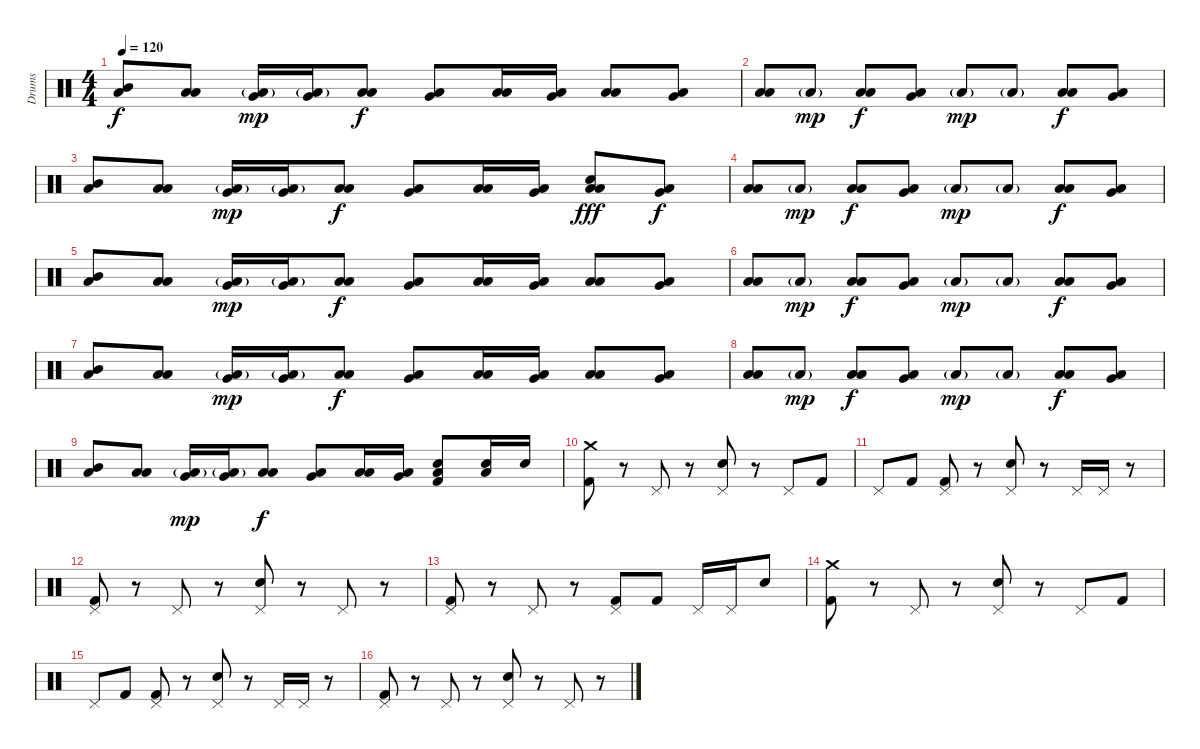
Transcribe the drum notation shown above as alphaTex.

\track ("Drums" "Drums") {instrument percussion}
\staff {score}
\articulation defaults
\ts (4 4)
\tempo 120
\clef neutral
\ks c
("Mid Tom (hit)" "Low Floor Tom (hit)").8{dy f} ("Low Tom (hit)" "Low Floor Tom (hit)").8 ("Very Low Tom (hit)" "Low Floor Tom (hit)"{g}).16{dy mp} ("Very Low Tom (hit)" "Low Floor Tom (hit)"{g}).16 ("Low Tom (hit)" "Low Floor Tom (hit)").8{dy f} ("Very Low Tom (hit)" "Low Floor Tom (hit)").8 ("Low Tom (hit)" "Low Floor Tom (hit)").16 ("Very Low Tom (hit)" "Low Floor Tom (hit)").16 ("Low Tom (hit)" "Low Floor Tom (hit)").8 ("Very Low Tom (hit)" "Low Floor Tom (hit)").8 |
("Low Tom (hit)" "Low Floor Tom (hit)").8 "Low Floor Tom (hit)"{g}.8{dy mp} ("Low Tom (hit)" "Low Floor Tom (hit)").8{dy f} ("Very Low Tom (hit)" "Low Floor Tom (hit)").8 "Low Floor Tom (hit)"{g}.8{dy mp} "Low Floor Tom (hit)"{g}.8 ("Low Tom (hit)" "Low Floor Tom (hit)").8{dy f} ("Very Low Tom (hit)" "Low Floor Tom (hit)").8 |
("Mid Tom (hit)" "Low Floor Tom (hit)").8 ("Low Tom (hit)" "Low Floor Tom (hit)").8 ("Very Low Tom (hit)" "Low Floor Tom (hit)"{g}).16{dy mp} ("Very Low Tom (hit)" "Low Floor Tom (hit)"{g}).16 ("Low Tom (hit)" "Low Floor Tom (hit)").8{dy f} ("Very Low Tom (hit)" "Low Floor Tom (hit)").8 ("Low Tom (hit)" "Low Floor Tom (hit)").16 ("Very Low Tom (hit)" "Low Floor Tom (hit)").16 ("Electric Snare (hit)" "Low Tom (hit)" "Low Floor Tom (hit)").8{dy fff} ("Very Low Tom (hit)" "Low Floor Tom (hit)").8{dy f} |
("Low Tom (hit)" "Low Floor Tom (hit)").8 "Low Floor Tom (hit)"{g}.8{dy mp} ("Low Tom (hit)" "Low Floor Tom (hit)").8{dy f} ("Very Low Tom (hit)" "Low Floor Tom (hit)").8 "Low Floor Tom (hit)"{g}.8{dy mp} "Low Floor Tom (hit)"{g}.8 ("Low Tom (hit)" "Low Floor Tom (hit)").8{dy f} ("Very Low Tom (hit)" "Low Floor Tom (hit)").8 |
("Mid Tom (hit)" "Low Floor Tom (hit)").8 ("Low Tom (hit)" "Low Floor Tom (hit)").8 ("Very Low Tom (hit)" "Low Floor Tom (hit)"{g}).16{dy mp} ("Very Low Tom (hit)" "Low Floor Tom (hit)"{g}).16 ("Low Tom (hit)" "Low Floor Tom (hit)").8{dy f} ("Very Low Tom (hit)" "Low Floor Tom (hit)").8 ("Low Tom (hit)" "Low Floor Tom (hit)").16 ("Very Low Tom (hit)" "Low Floor Tom (hit)").16 ("Low Tom (hit)" "Low Floor Tom (hit)").8 ("Very Low Tom (hit)" "Low Floor Tom (hit)").8 |
("Low Tom (hit)" "Low Floor Tom (hit)").8 "Low Floor Tom (hit)"{g}.8{dy mp} ("Low Tom (hit)" "Low Floor Tom (hit)").8{dy f} ("Very Low Tom (hit)" "Low Floor Tom (hit)").8 "Low Floor Tom (hit)"{g}.8{dy mp} "Low Floor Tom (hit)"{g}.8 ("Low Tom (hit)" "Low Floor Tom (hit)").8{dy f} ("Very Low Tom (hit)" "Low Floor Tom (hit)").8 |
("Mid Tom (hit)" "Low Floor Tom (hit)").8 ("Low Tom (hit)" "Low Floor Tom (hit)").8 ("Very Low Tom (hit)" "Low Floor Tom (hit)"{g}).16{dy mp} ("Very Low Tom (hit)" "Low Floor Tom (hit)"{g}).16 ("Low Tom (hit)" "Low Floor Tom (hit)").8{dy f} ("Very Low Tom (hit)" "Low Floor Tom (hit)").8 ("Low Tom (hit)" "Low Floor Tom (hit)").16 ("Very Low Tom (hit)" "Low Floor Tom (hit)").16 ("Low Tom (hit)" "Low Floor Tom (hit)").8 ("Very Low Tom (hit)" "Low Floor Tom (hit)").8 |
("Low Tom (hit)" "Low Floor Tom (hit)").8 "Low Floor Tom (hit)"{g}.8{dy mp} ("Low Tom (hit)" "Low Floor Tom (hit)").8{dy f} ("Very Low Tom (hit)" "Low Floor Tom (hit)").8 "Low Floor Tom (hit)"{g}.8{dy mp} "Low Floor Tom (hit)"{g}.8 ("Low Tom (hit)" "Low Floor Tom (hit)").8{dy f} ("Very Low Tom (hit)" "Low Floor Tom (hit)").8 |
("Mid Tom (hit)" "Low Floor Tom (hit)").8 ("Low Tom (hit)" "Low Floor Tom (hit)").8 ("Very Low Tom (hit)" "Low Floor Tom (hit)"{g}).16{dy mp} ("Very Low Tom (hit)" "Low Floor Tom (hit)"{g}).16 ("Low Tom (hit)" "Low Floor Tom (hit)").8{dy f} ("Very Low Tom (hit)" "Low Floor Tom (hit)").8 ("Low Tom (hit)" "Low Floor Tom (hit)").16 ("Very Low Tom (hit)" "Low Floor Tom (hit)").16 ("Electric Snare (hit)" "Low Floor Tom (hit)" "Kick (hit) 2").8 ("Electric Snare (hit)" "Low Floor Tom (hit)").16 "Electric Snare (hit)".16 |
\section ("" "")
("Crash medium (hit)" "Kick (hit) 2").8 r.8 "Pedal Hi-Hat (hit)".8 r.8 ("Pedal Hi-Hat (hit)" "Electric Snare (hit)").8 r.8 "Pedal Hi-Hat (hit)".8 "Kick (hit) 2".8 |
"Pedal Hi-Hat (hit)".8 "Kick (hit) 2".8 ("Pedal Hi-Hat (hit)" "Kick (hit) 2").8 r.8 ("Pedal Hi-Hat (hit)" "Electric Snare (hit)").8 r.8 "Pedal Hi-Hat (hit)".16 "Pedal Hi-Hat (hit)".16 r.8 |
("Pedal Hi-Hat (hit)" "Kick (hit) 2").8 r.8 "Pedal Hi-Hat (hit)".8 r.8 ("Pedal Hi-Hat (hit)" "Electric Snare (hit)").8 r.8 "Pedal Hi-Hat (hit)".8 r.8 |
("Pedal Hi-Hat (hit)" "Kick (hit) 2").8 r.8 "Pedal Hi-Hat (hit)".8 r.8 ("Pedal Hi-Hat (hit)" "Kick (hit) 2").8 "Kick (hit) 2".8 "Pedal Hi-Hat (hit)".16 "Pedal Hi-Hat (hit)".16 "Electric Snare (hit)".8 |
("Crash medium (hit)" "Kick (hit) 2").8 r.8 "Pedal Hi-Hat (hit)".8 r.8 ("Pedal Hi-Hat (hit)" "Electric Snare (hit)").8 r.8 "Pedal Hi-Hat (hit)".8 "Kick (hit) 2".8 |
"Pedal Hi-Hat (hit)".8 "Kick (hit) 2".8 ("Pedal Hi-Hat (hit)" "Kick (hit) 2").8 r.8 ("Pedal Hi-Hat (hit)" "Electric Snare (hit)").8 r.8 "Pedal Hi-Hat (hit)".16 "Pedal Hi-Hat (hit)".16 r.8 |
("Pedal Hi-Hat (hit)" "Kick (hit) 2").8 r.8 "Pedal Hi-Hat (hit)".8 r.8 ("Pedal Hi-Hat (hit)" "Electric Snare (hit)").8 r.8 "Pedal Hi-Hat (hit)".8 r.8
